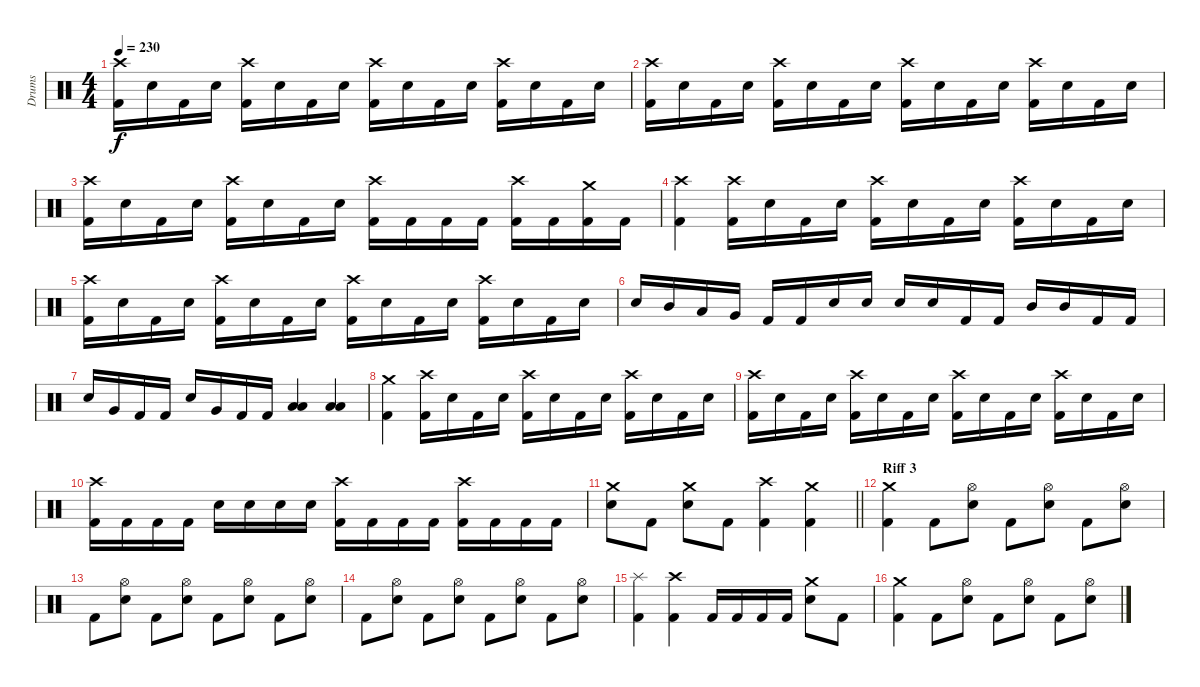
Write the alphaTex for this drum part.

\track ("Drums" "Drums") {instrument percussion}
\staff {score}
\articulation defaults
\ts (4 4)
\tempo 230
\clef neutral
\ks c
("Kick (hit) 2" "Crash high (hit)").16{dy f} "Electric Snare (hit)".16 "Kick (hit) 2".16 "Electric Snare (hit)".16 ("Kick (hit) 2" "Crash high (hit)").16 "Electric Snare (hit)".16 "Kick (hit) 2".16 "Electric Snare (hit)".16 ("Kick (hit) 2" "Crash high (hit)").16 "Electric Snare (hit)".16 "Kick (hit) 2".16 "Electric Snare (hit)".16 ("Kick (hit) 2" "Crash high (hit)").16 "Electric Snare (hit)".16 "Kick (hit) 2".16 "Electric Snare (hit)".16 |
("Kick (hit) 2" "Crash high (hit)").16 "Electric Snare (hit)".16 "Kick (hit) 2".16 "Electric Snare (hit)".16 ("Kick (hit) 2" "Crash high (hit)").16 "Electric Snare (hit)".16 "Kick (hit) 2".16 "Electric Snare (hit)".16 ("Kick (hit) 2" "Crash high (hit)").16 "Electric Snare (hit)".16 "Kick (hit) 2".16 "Electric Snare (hit)".16 ("Kick (hit) 2" "Crash high (hit)").16 "Electric Snare (hit)".16 "Kick (hit) 2".16 "Electric Snare (hit)".16 |
("Kick (hit) 2" "Crash high (hit)").16 "Electric Snare (hit)".16 "Kick (hit) 2".16 "Electric Snare (hit)".16 ("Kick (hit) 2" "Crash high (hit)").16 "Electric Snare (hit)".16 "Kick (hit) 2".16 "Electric Snare (hit)".16 ("Crash high (hit)" "Kick (hit) 2").16 "Kick (hit) 2".16 "Kick (hit) 2".16 "Kick (hit) 2".16 ("Crash high (hit)" "Kick (hit) 2").16 "Kick (hit) 2".16 ("Crash medium (hit)" "Kick (hit) 2").16 "Kick (hit) 2".16 |
("Kick (hit) 2" "Crash high (hit)").4 ("Kick (hit) 2" "Crash high (hit)").16 "Electric Snare (hit)".16 "Kick (hit) 2".16 "Electric Snare (hit)".16 ("Kick (hit) 2" "Crash high (hit)").16 "Electric Snare (hit)".16 "Kick (hit) 2".16 "Electric Snare (hit)".16 ("Kick (hit) 2" "Crash high (hit)").16 "Electric Snare (hit)".16 "Kick (hit) 2".16 "Electric Snare (hit)".16 |
("Kick (hit) 2" "Crash high (hit)").16 "Electric Snare (hit)".16 "Kick (hit) 2".16 "Electric Snare (hit)".16 ("Kick (hit) 2" "Crash high (hit)").16 "Electric Snare (hit)".16 "Kick (hit) 2".16 "Electric Snare (hit)".16 ("Kick (hit) 2" "Crash high (hit)").16 "Electric Snare (hit)".16 "Kick (hit) 2".16 "Electric Snare (hit)".16 ("Kick (hit) 2" "Crash high (hit)").16 "Electric Snare (hit)".16 "Kick (hit) 2".16 "Electric Snare (hit)".16 |
"Electric Snare (hit)".16 "Mid Tom (hit)".16 "Low Tom (hit)".16 "Very Low Tom (hit)".16 "Kick (hit) 2".16 "Kick (hit) 2".16 "Electric Snare (hit)".16 "Electric Snare (hit)".16 "Electric Snare (hit)".16 "Electric Snare (hit)".16 "Kick (hit) 2".16 "Kick (hit) 2".16 "Mid Tom (hit)".16 "Mid Tom (hit)".16 "Kick (hit) 2".16 "Kick (hit) 2".16 |
"Electric Snare (hit)".16 "Very Low Tom (hit)".16 "Kick (hit) 2".16 "Kick (hit) 2".16 "Electric Snare (hit)".16 "Very Low Tom (hit)".16 "Kick (hit) 2".16 "Kick (hit) 2".16 ("Low Tom (hit)" "Low Floor Tom (hit)").4 ("Low Tom (hit)" "Low Floor Tom (hit)").4 |
("Kick (hit) 2" "Crash medium (hit)").4 ("Kick (hit) 2" "Crash high (hit)").16 "Electric Snare (hit)".16 "Kick (hit) 2".16 "Electric Snare (hit)".16 ("Kick (hit) 2" "Crash high (hit)").16 "Electric Snare (hit)".16 "Kick (hit) 2".16 "Electric Snare (hit)".16 ("Kick (hit) 2" "Crash high (hit)").16 "Electric Snare (hit)".16 "Kick (hit) 2".16 "Electric Snare (hit)".16 |
("Kick (hit) 2" "Crash high (hit)").16 "Electric Snare (hit)".16 "Kick (hit) 2".16 "Electric Snare (hit)".16 ("Kick (hit) 2" "Crash high (hit)").16 "Electric Snare (hit)".16 "Kick (hit) 2".16 "Electric Snare (hit)".16 ("Kick (hit) 2" "Crash high (hit)").16 "Electric Snare (hit)".16 "Kick (hit) 2".16 "Electric Snare (hit)".16 ("Kick (hit) 2" "Crash high (hit)").16 "Electric Snare (hit)".16 "Kick (hit) 2".16 "Electric Snare (hit)".16 |
("Crash high (hit)" "Kick (hit) 2").16 "Kick (hit) 2".16 "Kick (hit) 2".16 "Kick (hit) 2".16 "Electric Snare (hit)".16 "Electric Snare (hit)".16 "Electric Snare (hit)".16 "Electric Snare (hit)".16 ("Crash high (hit)" "Kick (hit) 2").16 "Kick (hit) 2".16 "Kick (hit) 2".16 "Kick (hit) 2".16 ("Crash high (hit)" "Kick (hit) 2").16 "Kick (hit) 2".16 "Kick (hit) 2".16 "Kick (hit) 2".16 |
\barLineRight lightlight
("Crash medium (hit)" "Electric Snare (hit)").8 "Kick (hit) 2".8 ("Crash medium (hit)" "Electric Snare (hit)").8 "Kick (hit) 2".8 ("Kick (hit) 2" "Crash high (hit)").4 ("Kick (hit) 2" "Crash medium (hit)").4 |
\section ("" "Riff 3")
("Kick (hit) 2" "Crash medium (hit)").4 "Kick (hit) 2".8 ("Hi-Hat (open)" "Electric Snare (hit)").8 "Kick (hit) 2".8 ("Hi-Hat (open)" "Electric Snare (hit)").8 "Kick (hit) 2".8 ("Hi-Hat (open)" "Electric Snare (hit)").8 |
"Kick (hit) 2".8 ("Hi-Hat (open)" "Electric Snare (hit)").8 "Kick (hit) 2".8 ("Hi-Hat (open)" "Electric Snare (hit)").8 "Kick (hit) 2".8 ("Hi-Hat (open)" "Electric Snare (hit)").8 "Kick (hit) 2".8 ("Hi-Hat (open)" "Electric Snare (hit)").8 |
"Kick (hit) 2".8 ("Hi-Hat (open)" "Electric Snare (hit)").8 "Kick (hit) 2".8 ("Hi-Hat (open)" "Electric Snare (hit)").8 "Kick (hit) 2".8 ("Hi-Hat (open)" "Electric Snare (hit)").8 "Kick (hit) 2".8 ("Hi-Hat (open)" "Electric Snare (hit)").8 |
("Kick (hit) 2" "Splash (hit)").4 ("Kick (hit) 2" "Crash high (hit)").4 "Kick (hit) 2".16 "Kick (hit) 2".16 "Kick (hit) 2".16 "Kick (hit) 2".16 ("Crash medium (hit)" "Electric Snare (hit)").8 "Kick (hit) 2".8 |
("Kick (hit) 2" "Crash medium (hit)").4 "Kick (hit) 2".8 ("Hi-Hat (open)" "Electric Snare (hit)").8 "Kick (hit) 2".8 ("Hi-Hat (open)" "Electric Snare (hit)").8 "Kick (hit) 2".8 ("Hi-Hat (open)" "Electric Snare (hit)").8
